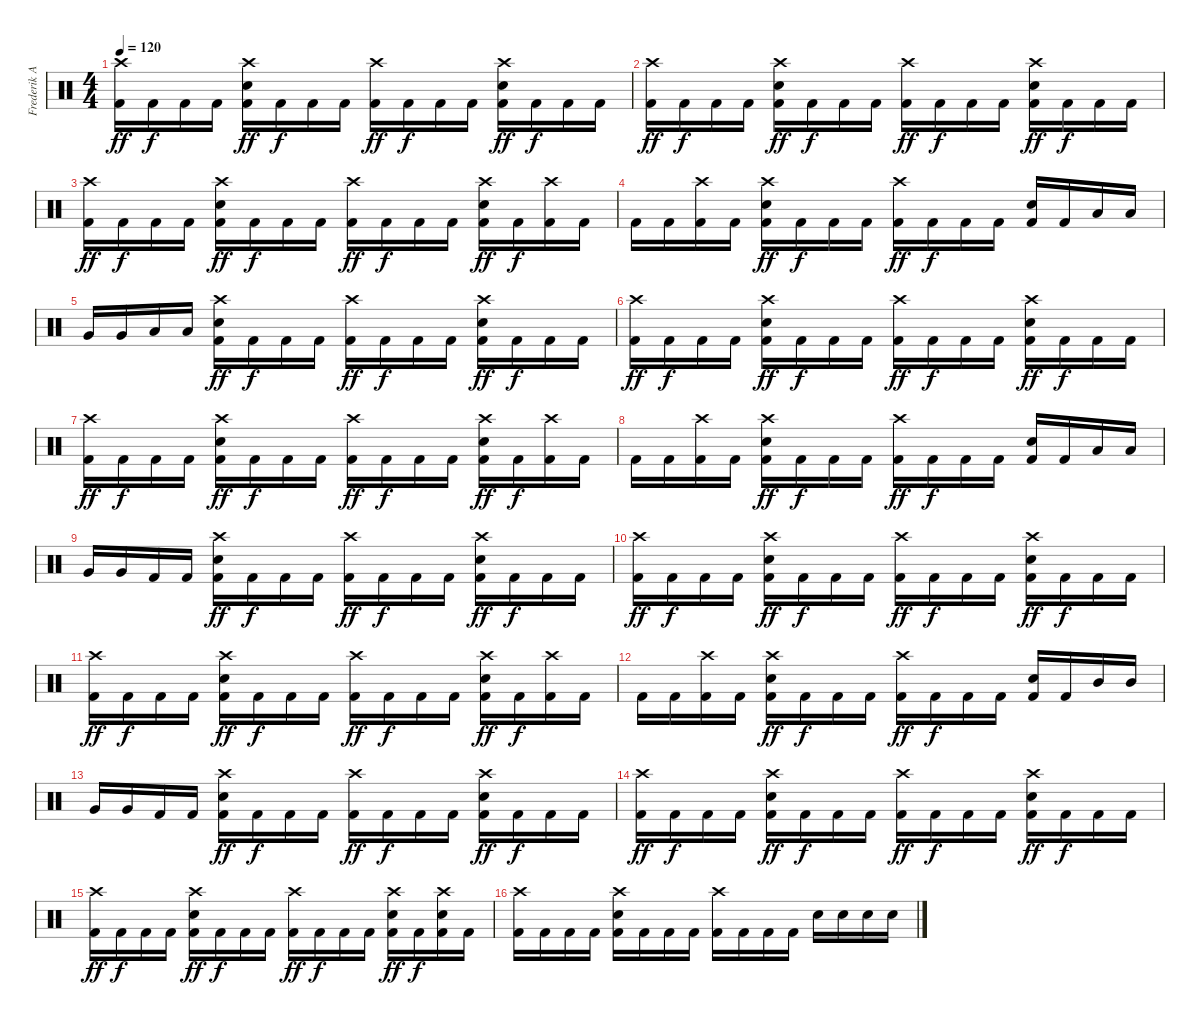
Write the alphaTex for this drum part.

\track ("Frederik Anderson" "Frederik A") {instrument percussion}
\staff {score}
\articulation defaults
\ts (4 4)
\tempo 120
\clef neutral
\ks c
("Crash high (hit)" "Kick (hit) 2").16{dy ff} "Kick (hit) 2".16{dy f} "Kick (hit) 2".16 "Kick (hit) 2".16 ("Crash high (hit)" "Electric Snare (hit)" "Kick (hit) 2").16{dy ff} "Kick (hit) 2".16{dy f} "Kick (hit) 2".16 "Kick (hit) 2".16 ("Crash high (hit)" "Kick (hit) 2").16{dy ff} "Kick (hit) 2".16{dy f} "Kick (hit) 2".16 "Kick (hit) 2".16 ("Crash high (hit)" "Electric Snare (hit)" "Kick (hit) 2").16{dy ff} "Kick (hit) 2".16{dy f} "Kick (hit) 2".16 "Kick (hit) 2".16 |
("Crash high (hit)" "Kick (hit) 2").16{dy ff} "Kick (hit) 2".16{dy f} "Kick (hit) 2".16 "Kick (hit) 2".16 ("Crash high (hit)" "Electric Snare (hit)" "Kick (hit) 2").16{dy ff} "Kick (hit) 2".16{dy f} "Kick (hit) 2".16 "Kick (hit) 2".16 ("Crash high (hit)" "Kick (hit) 2").16{dy ff} "Kick (hit) 2".16{dy f} "Kick (hit) 2".16 "Kick (hit) 2".16 ("Crash high (hit)" "Electric Snare (hit)" "Kick (hit) 2").16{dy ff} "Kick (hit) 2".16{dy f} "Kick (hit) 2".16 "Kick (hit) 2".16 |
("Crash high (hit)" "Kick (hit) 2").16{dy ff} "Kick (hit) 2".16{dy f} "Kick (hit) 2".16 "Kick (hit) 2".16 ("Crash high (hit)" "Electric Snare (hit)" "Kick (hit) 2").16{dy ff} "Kick (hit) 2".16{dy f} "Kick (hit) 2".16 "Kick (hit) 2".16 ("Crash high (hit)" "Kick (hit) 2").16{dy ff} "Kick (hit) 2".16{dy f} "Kick (hit) 2".16 "Kick (hit) 2".16 ("Crash high (hit)" "Electric Snare (hit)" "Kick (hit) 2").16{dy ff} "Kick (hit) 2".16{dy f} ("Crash high (hit)" "Kick (hit) 2").16 "Kick (hit) 2".16 |
"Kick (hit) 2".16 "Kick (hit) 2".16 ("Crash high (hit)" "Kick (hit) 2").16 "Kick (hit) 2".16 ("Crash high (hit)" "Electric Snare (hit)" "Kick (hit) 2").16{dy ff} "Kick (hit) 2".16{dy f} "Kick (hit) 2".16 "Kick (hit) 2".16 ("Crash high (hit)" "Kick (hit) 2").16{dy ff} "Kick (hit) 2".16{dy f} "Kick (hit) 2".16 "Kick (hit) 2".16 ("Electric Snare (hit)" "Kick (hit) 2").16 "Kick (hit) 2".16 "Low Tom (hit)".16 "Low Tom (hit)".16 |
"Very Low Tom (hit)".16 "Very Low Tom (hit)".16 "Low Floor Tom (hit)".16 "Low Floor Tom (hit)".16 ("Crash high (hit)" "Electric Snare (hit)" "Kick (hit) 2").16{dy ff} "Kick (hit) 2".16{dy f} "Kick (hit) 2".16 "Kick (hit) 2".16 ("Crash high (hit)" "Kick (hit) 2").16{dy ff} "Kick (hit) 2".16{dy f} "Kick (hit) 2".16 "Kick (hit) 2".16 ("Crash high (hit)" "Electric Snare (hit)" "Kick (hit) 2").16{dy ff} "Kick (hit) 2".16{dy f} "Kick (hit) 2".16 "Kick (hit) 2".16 |
("Crash high (hit)" "Kick (hit) 2").16{dy ff} "Kick (hit) 2".16{dy f} "Kick (hit) 2".16 "Kick (hit) 2".16 ("Crash high (hit)" "Electric Snare (hit)" "Kick (hit) 2").16{dy ff} "Kick (hit) 2".16{dy f} "Kick (hit) 2".16 "Kick (hit) 2".16 ("Crash high (hit)" "Kick (hit) 2").16{dy ff} "Kick (hit) 2".16{dy f} "Kick (hit) 2".16 "Kick (hit) 2".16 ("Crash high (hit)" "Electric Snare (hit)" "Kick (hit) 2").16{dy ff} "Kick (hit) 2".16{dy f} "Kick (hit) 2".16 "Kick (hit) 2".16 |
("Crash high (hit)" "Kick (hit) 2").16{dy ff} "Kick (hit) 2".16{dy f} "Kick (hit) 2".16 "Kick (hit) 2".16 ("Crash high (hit)" "Electric Snare (hit)" "Kick (hit) 2").16{dy ff} "Kick (hit) 2".16{dy f} "Kick (hit) 2".16 "Kick (hit) 2".16 ("Crash high (hit)" "Kick (hit) 2").16{dy ff} "Kick (hit) 2".16{dy f} "Kick (hit) 2".16 "Kick (hit) 2".16 ("Crash high (hit)" "Electric Snare (hit)" "Kick (hit) 2").16{dy ff} "Kick (hit) 2".16{dy f} ("Crash high (hit)" "Kick (hit) 2").16 "Kick (hit) 2".16 |
"Kick (hit) 2".16 "Kick (hit) 2".16 ("Crash high (hit)" "Kick (hit) 2").16 "Kick (hit) 2".16 ("Crash high (hit)" "Electric Snare (hit)" "Kick (hit) 2").16{dy ff} "Kick (hit) 2".16{dy f} "Kick (hit) 2".16 "Kick (hit) 2".16 ("Crash high (hit)" "Kick (hit) 2").16{dy ff} "Kick (hit) 2".16{dy f} "Kick (hit) 2".16 "Kick (hit) 2".16 ("Electric Snare (hit)" "Kick (hit) 2").16 "Kick (hit) 2".16 "Low Tom (hit)".16 "Low Tom (hit)".16 |
"Very Low Tom (hit)".16 "Very Low Tom (hit)".16 "Kick (hit) 2".16 "Kick (hit) 2".16 ("Crash high (hit)" "Electric Snare (hit)" "Kick (hit) 2").16{dy ff} "Kick (hit) 2".16{dy f} "Kick (hit) 2".16 "Kick (hit) 2".16 ("Crash high (hit)" "Kick (hit) 2").16{dy ff} "Kick (hit) 2".16{dy f} "Kick (hit) 2".16 "Kick (hit) 2".16 ("Crash high (hit)" "Electric Snare (hit)" "Kick (hit) 2").16{dy ff} "Kick (hit) 2".16{dy f} "Kick (hit) 2".16 "Kick (hit) 2".16 |
("Crash high (hit)" "Kick (hit) 2").16{dy ff} "Kick (hit) 2".16{dy f} "Kick (hit) 2".16 "Kick (hit) 2".16 ("Crash high (hit)" "Electric Snare (hit)" "Kick (hit) 2").16{dy ff} "Kick (hit) 2".16{dy f} "Kick (hit) 2".16 "Kick (hit) 2".16 ("Crash high (hit)" "Kick (hit) 2").16{dy ff} "Kick (hit) 2".16{dy f} "Kick (hit) 2".16 "Kick (hit) 2".16 ("Crash high (hit)" "Electric Snare (hit)" "Kick (hit) 2").16{dy ff} "Kick (hit) 2".16{dy f} "Kick (hit) 2".16 "Kick (hit) 2".16 |
("Crash high (hit)" "Kick (hit) 2").16{dy ff} "Kick (hit) 2".16{dy f} "Kick (hit) 2".16 "Kick (hit) 2".16 ("Crash high (hit)" "Electric Snare (hit)" "Kick (hit) 2").16{dy ff} "Kick (hit) 2".16{dy f} "Kick (hit) 2".16 "Kick (hit) 2".16 ("Crash high (hit)" "Kick (hit) 2").16{dy ff} "Kick (hit) 2".16{dy f} "Kick (hit) 2".16 "Kick (hit) 2".16 ("Crash high (hit)" "Electric Snare (hit)" "Kick (hit) 2").16{dy ff} "Kick (hit) 2".16{dy f} ("Crash high (hit)" "Kick (hit) 2").16 "Kick (hit) 2".16 |
"Kick (hit) 2".16 "Kick (hit) 2".16 ("Crash high (hit)" "Kick (hit) 2").16 "Kick (hit) 2".16 ("Crash high (hit)" "Electric Snare (hit)" "Kick (hit) 2").16{dy ff} "Kick (hit) 2".16{dy f} "Kick (hit) 2".16 "Kick (hit) 2".16 ("Crash high (hit)" "Kick (hit) 2").16{dy ff} "Kick (hit) 2".16{dy f} "Kick (hit) 2".16 "Kick (hit) 2".16 ("Electric Snare (hit)" "Kick (hit) 2").16 "Kick (hit) 2".16 "Mid Tom (hit)".16 "Mid Tom (hit)".16 |
"Very Low Tom (hit)".16 "Very Low Tom (hit)".16 "Kick (hit) 2".16 "Kick (hit) 2".16 ("Crash high (hit)" "Electric Snare (hit)" "Kick (hit) 2").16{dy ff} "Kick (hit) 2".16{dy f} "Kick (hit) 2".16 "Kick (hit) 2".16 ("Crash high (hit)" "Kick (hit) 2").16{dy ff} "Kick (hit) 2".16{dy f} "Kick (hit) 2".16 "Kick (hit) 2".16 ("Crash high (hit)" "Electric Snare (hit)" "Kick (hit) 2").16{dy ff} "Kick (hit) 2".16{dy f} "Kick (hit) 2".16 "Kick (hit) 2".16 |
("Crash high (hit)" "Kick (hit) 2").16{dy ff} "Kick (hit) 2".16{dy f} "Kick (hit) 2".16 "Kick (hit) 2".16 ("Crash high (hit)" "Electric Snare (hit)" "Kick (hit) 2").16{dy ff} "Kick (hit) 2".16{dy f} "Kick (hit) 2".16 "Kick (hit) 2".16 ("Crash high (hit)" "Kick (hit) 2").16{dy ff} "Kick (hit) 2".16{dy f} "Kick (hit) 2".16 "Kick (hit) 2".16 ("Crash high (hit)" "Electric Snare (hit)" "Kick (hit) 2").16{dy ff} "Kick (hit) 2".16{dy f} "Kick (hit) 2".16 "Kick (hit) 2".16 |
("Crash high (hit)" "Kick (hit) 2").16{dy ff} "Kick (hit) 2".16{dy f} "Kick (hit) 2".16 "Kick (hit) 2".16 ("Crash high (hit)" "Electric Snare (hit)" "Kick (hit) 2").16{dy ff} "Kick (hit) 2".16{dy f} "Kick (hit) 2".16 "Kick (hit) 2".16 ("Crash high (hit)" "Kick (hit) 2").16{dy ff} "Kick (hit) 2".16{dy f} "Kick (hit) 2".16 "Kick (hit) 2".16 ("Crash high (hit)" "Electric Snare (hit)" "Kick (hit) 2").16{dy ff} "Kick (hit) 2".16{dy f} ("Crash high (hit)" "Electric Snare (hit)" "Kick (hit) 2").16 "Kick (hit) 2".16 |
("Crash high (hit)" "Kick (hit) 2").16 "Kick (hit) 2".16 "Kick (hit) 2".16 "Kick (hit) 2".16 ("Crash high (hit)" "Electric Snare (hit)" "Kick (hit) 2").16 "Kick (hit) 2".16 "Kick (hit) 2".16 "Kick (hit) 2".16 ("Crash high (hit)" "Kick (hit) 2").16 "Kick (hit) 2".16 "Kick (hit) 2".16 "Kick (hit) 2".16 "Electric Snare (hit)".16 "Electric Snare (hit)".16 "Electric Snare (hit)".16 "Electric Snare (hit)".16
